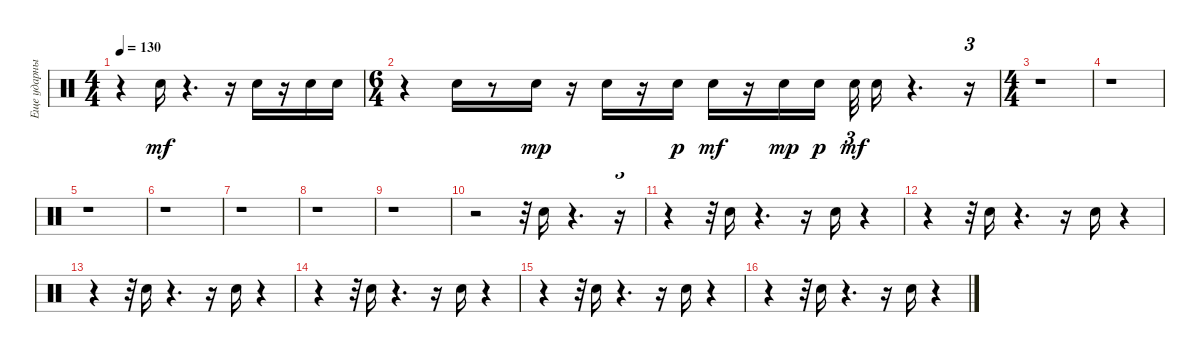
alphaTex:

\track ("Еще ударные" "Еще ударны") {instrument percussion}
\staff {score}
\articulation defaults
\ts (4 4)
\tempo 130
\clef neutral
\ks c
r.4{dy mf} "Electric Snare (hit)".16 r.4{d} r.16 "Electric Snare (hit)".16 r.16 "Electric Snare (hit)".16 "Electric Snare (hit)".16 |
\ts (6 4)
r.4 "Electric Snare (hit)".16 r.8 "Electric Snare (hit)".16{dy mp} r.16 "Electric Snare (hit)".16 r.16 "Electric Snare (hit)".16{dy p} "Electric Snare (hit)".16{dy mf} r.16 "Electric Snare (hit)".16{dy mp} "Electric Snare (hit)".16{dy p beam splitsecondary} "Electric Snare (hit)".32{tu (3 2) dy mf} "Electric Snare (hit)".16 r.4{d} r.16{tu (3 2)} |
\ts (4 4)
r.1 |
r.1 |
r.1 |
r.1 |
r.1 |
r.1 |
r.1 |
r.2 r.32{tu (3 2)} "Electric Snare (hit)".16 r.4{d} r.16{tu (3 2)} |
r.4 r.32{tu (3 2)} "Electric Snare (hit)".16 r.4{d} r.16 "Electric Snare (hit)".16 r.4{tu (3 2)} |
r.4 r.32{tu (3 2)} "Electric Snare (hit)".16 r.4{d} r.16 "Electric Snare (hit)".16 r.4{tu (3 2)} |
r.4 r.32{tu (3 2)} "Electric Snare (hit)".16 r.4{d} r.16 "Electric Snare (hit)".16 r.4{tu (3 2)} |
r.4 r.32{tu (3 2)} "Electric Snare (hit)".16 r.4{d} r.16 "Electric Snare (hit)".16 r.4{tu (3 2)} |
r.4 r.32{tu (3 2)} "Electric Snare (hit)".16 r.4{d} r.16 "Electric Snare (hit)".16 r.4{tu (3 2)} |
r.4 r.32{tu (3 2)} "Electric Snare (hit)".16 r.4{d} r.16 "Electric Snare (hit)".16 r.4{tu (3 2)}
